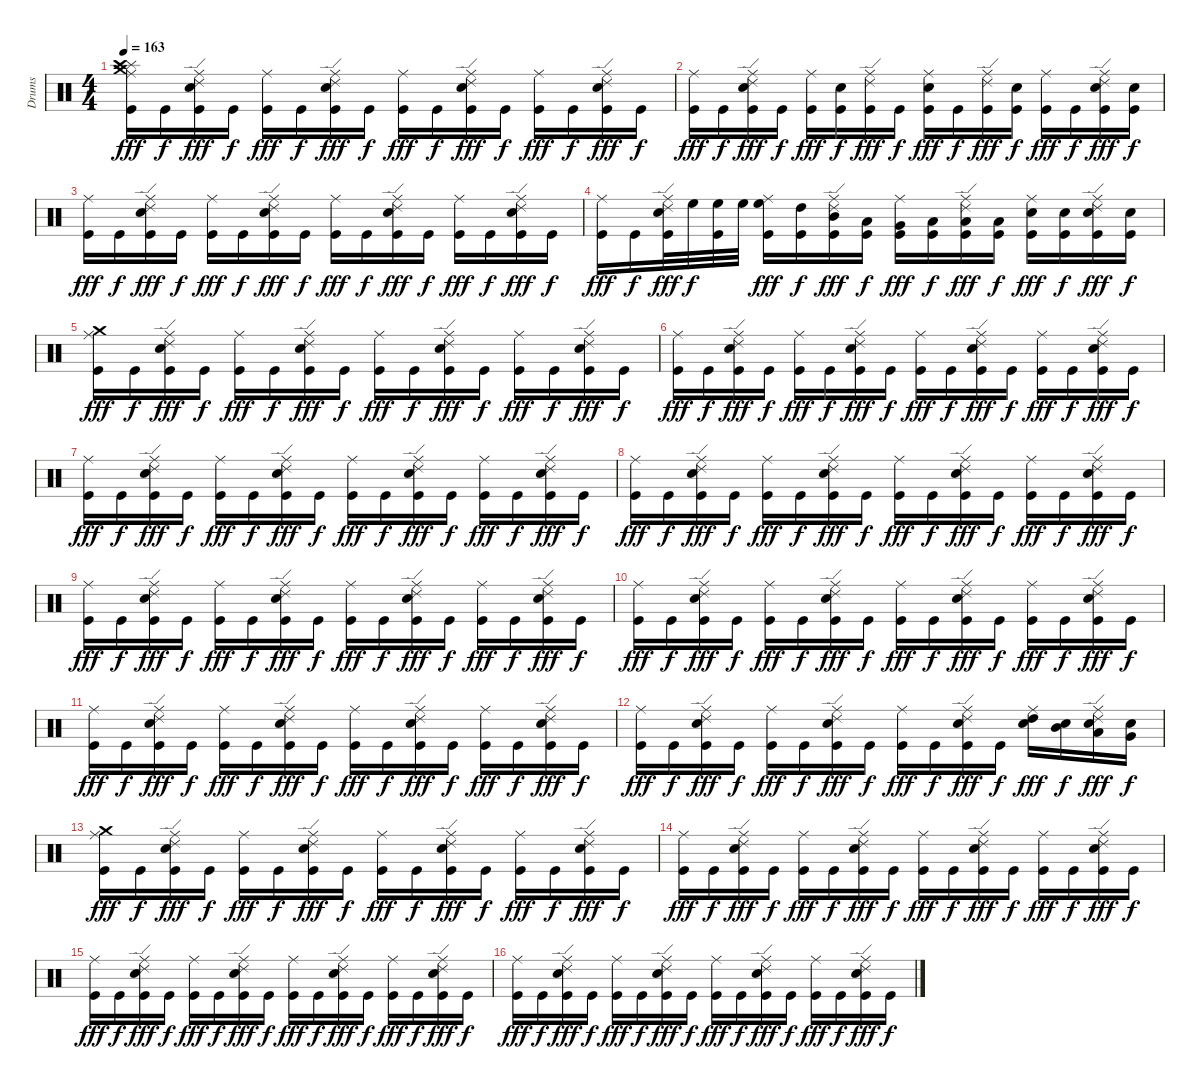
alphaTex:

\track ("Drums" "Drums") {instrument percussion}
\staff {score}
\articulation defaults
\ts (4 4)
\tempo 163
\clef neutral
\ks c
("Crash medium (hit)" "Splash (hit)" "Crash high (hit)" "Ride (middle)" "Kick (hit)").16{dy fff} "Kick (hit)".16{dy f} ("Kick (hit)" "Ride (middle)" "Electric Snare (hit)" "Ride (edge) 2").16{dy fff} "Kick (hit)".16{dy f} ("Ride (middle)" "Kick (hit)").16{dy fff} "Kick (hit)".16{dy f} ("Ride (edge) 2" "Kick (hit)" "Ride (middle)" "Electric Snare (hit)").16{dy fff} "Kick (hit)".16{dy f} ("Ride (middle)" "Kick (hit)").16{dy fff} "Kick (hit)".16{dy f} ("Ride (edge) 2" "Kick (hit)" "Ride (middle)" "Electric Snare (hit)").16{dy fff} "Kick (hit)".16{dy f} ("Kick (hit)" "Ride (middle)").16{dy fff} "Kick (hit)".16{dy f} ("Ride (edge) 2" "Kick (hit)" "Ride (middle)" "Electric Snare (hit)").16{dy fff} "Kick (hit)".16{dy f} |
("Kick (hit)" "Ride (middle)").16{dy fff} "Kick (hit)".16{dy f} ("Ride (edge) 2" "Kick (hit)" "Ride (middle)" "Electric Snare (hit)").16{dy fff} "Kick (hit)".16{dy f} ("Ride (middle)" "Kick (hit)").16{dy fff} ("Kick (hit)" "Electric Snare (hit)").16{dy f} ("Kick (hit)" "Ride (middle)" "Ride (edge) 2").16{dy fff} "Kick (hit)".16{dy f} ("Ride (middle)" "Kick (hit)" "Electric Snare (hit)").16{dy fff} "Kick (hit)".16{dy f} ("Ride (edge) 2" "Ride (middle)" "Kick (hit)").16{dy fff} ("Kick (hit)" "Electric Snare (hit)").16{dy f} ("Ride (middle)" "Kick (hit)").16{dy fff} "Kick (hit)".16{dy f} ("Electric Snare (hit)" "Ride (middle)" "Kick (hit)" "Ride (edge) 2").16{dy fff} ("Kick (hit)" "Electric Snare (hit)").16{dy f} |
("Ride (middle)" "Kick (hit)").16{dy fff} "Kick (hit)".16{dy f} ("Kick (hit)" "Ride (middle)" "Electric Snare (hit)" "Ride (edge) 2").16{dy fff} "Kick (hit)".16{dy f} ("Ride (middle)" "Kick (hit)").16{dy fff} "Kick (hit)".16{dy f} ("Ride (edge) 2" "Kick (hit)" "Ride (middle)" "Electric Snare (hit)").16{dy fff} "Kick (hit)".16{dy f} ("Ride (middle)" "Kick (hit)").16{dy fff} "Kick (hit)".16{dy f} ("Ride (edge) 2" "Kick (hit)" "Ride (middle)" "Electric Snare (hit)").16{dy fff} "Kick (hit)".16{dy f} ("Kick (hit)" "Ride (middle)").16{dy fff} "Kick (hit)".16{dy f} ("Ride (edge) 2" "Kick (hit)" "Ride (middle)" "Electric Snare (hit)").16{dy fff} "Kick (hit)".16{dy f} |
("Kick (hit)" "Ride (middle)").16{dy fff} "Kick (hit)".16{dy f} ("Electric Snare (hit)" "Ride (edge) 2" "Kick (hit)" "Ride (middle)").32{dy fff} "High Floor Tom (hit)".32{dy f} ("Kick (hit)" "High Floor Tom (hit)").32 "High Floor Tom (hit)".32 ("High Floor Tom (hit)" "Kick (hit)" "Ride (middle)").16{dy fff} ("Kick (hit)" "High Tom (hit)").16{dy f} ("Mid Tom (hit)" "Ride (middle)" "Kick (hit)" "Ride (edge) 2").16{dy fff} ("Low Tom (hit)" "Kick (hit)").16{dy f} ("Ride (middle)" "Kick (hit)" "Very Low Tom (hit)").16{dy fff} ("Kick (hit)" "Low Floor Tom (hit)").16{dy f} ("Ride (edge) 2" "Ride (middle)" "Low Floor Tom (hit)" "Kick (hit)").16{dy fff} ("Kick (hit)" "Low Floor Tom (hit)").16{dy f} ("Ride (middle)" "Electric Snare (hit)" "Kick (hit)").16{dy fff} ("Kick (hit)" "Electric Snare (hit)").16{dy f} ("Ride (middle)" "Electric Snare (hit)" "Ride (edge) 2" "Kick (hit)").16{dy fff} ("Kick (hit)" "Electric Snare (hit)").16{dy f} |
("Ride (middle)" "Crash medium (hit)" "Kick (hit)").16{dy fff} "Kick (hit)".16{dy f} ("Ride (middle)" "Kick (hit)" "Ride (edge) 2" "Electric Snare (hit)").16{dy fff} "Kick (hit)".16{dy f} ("Kick (hit)" "Ride (middle)").16{dy fff} "Kick (hit)".16{dy f} ("Ride (edge) 2" "Electric Snare (hit)" "Kick (hit)" "Ride (middle)").16{dy fff} "Kick (hit)".16{dy f} ("Ride (middle)" "Kick (hit)").16{dy fff} "Kick (hit)".16{dy f} ("Kick (hit)" "Ride (middle)" "Electric Snare (hit)" "Ride (edge) 2").16{dy fff} "Kick (hit)".16{dy f} ("Ride (middle)" "Kick (hit)").16{dy fff} "Kick (hit)".16{dy f} ("Electric Snare (hit)" "Kick (hit)" "Ride (middle)" "Ride (edge) 2").16{dy fff} "Kick (hit)".16{dy f} |
("Kick (hit)" "Ride (middle)").16{dy fff} "Kick (hit)".16{dy f} ("Ride (middle)" "Kick (hit)" "Ride (edge) 2" "Electric Snare (hit)").16{dy fff} "Kick (hit)".16{dy f} ("Kick (hit)" "Ride (middle)").16{dy fff} "Kick (hit)".16{dy f} ("Ride (edge) 2" "Electric Snare (hit)" "Kick (hit)" "Ride (middle)").16{dy fff} "Kick (hit)".16{dy f} ("Ride (middle)" "Kick (hit)").16{dy fff} "Kick (hit)".16{dy f} ("Ride (middle)" "Ride (edge) 2" "Electric Snare (hit)" "Kick (hit)").16{dy fff} "Kick (hit)".16{dy f} ("Kick (hit)" "Ride (middle)").16{dy fff} "Kick (hit)".16{dy f} ("Kick (hit)" "Ride (edge) 2" "Electric Snare (hit)" "Ride (middle)").16{dy fff} "Kick (hit)".16{dy f} |
("Ride (middle)" "Kick (hit)").16{dy fff} "Kick (hit)".16{dy f} ("Electric Snare (hit)" "Kick (hit)" "Ride (edge) 2" "Ride (middle)").16{dy fff} "Kick (hit)".16{dy f} ("Ride (middle)" "Kick (hit)").16{dy fff} "Kick (hit)".16{dy f} ("Ride (middle)" "Ride (edge) 2" "Kick (hit)" "Electric Snare (hit)").16{dy fff} "Kick (hit)".16{dy f} ("Kick (hit)" "Ride (middle)").16{dy fff} "Kick (hit)".16{dy f} ("Electric Snare (hit)" "Kick (hit)" "Ride (middle)" "Ride (edge) 2").16{dy fff} "Kick (hit)".16{dy f} ("Ride (middle)" "Kick (hit)").16{dy fff} "Kick (hit)".16{dy f} ("Kick (hit)" "Ride (edge) 2" "Electric Snare (hit)" "Ride (middle)").16{dy fff} "Kick (hit)".16{dy f} |
("Kick (hit)" "Ride (middle)").16{dy fff} "Kick (hit)".16{dy f} ("Kick (hit)" "Electric Snare (hit)" "Ride (middle)" "Ride (edge) 2").16{dy fff} "Kick (hit)".16{dy f} ("Kick (hit)" "Ride (middle)").16{dy fff} "Kick (hit)".16{dy f} ("Kick (hit)" "Ride (edge) 2" "Electric Snare (hit)" "Ride (middle)").16{dy fff} "Kick (hit)".16{dy f} ("Kick (hit)" "Ride (middle)").16{dy fff} "Kick (hit)".16{dy f} ("Ride (edge) 2" "Electric Snare (hit)" "Kick (hit)" "Ride (middle)").16{dy fff} "Kick (hit)".16{dy f} ("Kick (hit)" "Ride (middle)").16{dy fff} "Kick (hit)".16{dy f} ("Ride (middle)" "Ride (edge) 2" "Electric Snare (hit)" "Kick (hit)").16{dy fff} "Kick (hit)".16{dy f} |
("Ride (middle)" "Kick (hit)").16{dy fff} "Kick (hit)".16{dy f} ("Electric Snare (hit)" "Kick (hit)" "Ride (middle)" "Ride (edge) 2").16{dy fff} "Kick (hit)".16{dy f} ("Kick (hit)" "Ride (middle)").16{dy fff} "Kick (hit)".16{dy f} ("Electric Snare (hit)" "Kick (hit)" "Ride (middle)" "Ride (edge) 2").16{dy fff} "Kick (hit)".16{dy f} ("Ride (middle)" "Kick (hit)").16{dy fff} "Kick (hit)".16{dy f} ("Ride (middle)" "Ride (edge) 2" "Kick (hit)" "Electric Snare (hit)").16{dy fff} "Kick (hit)".16{dy f} ("Ride (middle)" "Kick (hit)").16{dy fff} "Kick (hit)".16{dy f} ("Electric Snare (hit)" "Kick (hit)" "Ride (middle)" "Ride (edge) 2").16{dy fff} "Kick (hit)".16{dy f} |
("Kick (hit)" "Ride (middle)").16{dy fff} "Kick (hit)".16{dy f} ("Ride (middle)" "Kick (hit)" "Ride (edge) 2" "Electric Snare (hit)").16{dy fff} "Kick (hit)".16{dy f} ("Kick (hit)" "Ride (middle)").16{dy fff} "Kick (hit)".16{dy f} ("Ride (edge) 2" "Electric Snare (hit)" "Kick (hit)" "Ride (middle)").16{dy fff} "Kick (hit)".16{dy f} ("Ride (middle)" "Kick (hit)").16{dy fff} "Kick (hit)".16{dy f} ("Ride (middle)" "Ride (edge) 2" "Electric Snare (hit)" "Kick (hit)").16{dy fff} "Kick (hit)".16{dy f} ("Ride (middle)" "Kick (hit)").16{dy fff} "Kick (hit)".16{dy f} ("Kick (hit)" "Electric Snare (hit)" "Ride (edge) 2" "Ride (middle)").16{dy fff} "Kick (hit)".16{dy f} |
("Ride (middle)" "Kick (hit)").16{dy fff} "Kick (hit)".16{dy f} ("Electric Snare (hit)" "Kick (hit)" "Ride (middle)" "Ride (edge) 2").16{dy fff} "Kick (hit)".16{dy f} ("Kick (hit)" "Ride (middle)").16{dy fff} "Kick (hit)".16{dy f} ("Electric Snare (hit)" "Kick (hit)" "Ride (middle)" "Ride (edge) 2").16{dy fff} "Kick (hit)".16{dy f} ("Kick (hit)" "Ride (middle)").16{dy fff} "Kick (hit)".16{dy f} ("Kick (hit)" "Ride (edge) 2" "Electric Snare (hit)" "Ride (middle)").16{dy fff} "Kick (hit)".16{dy f} ("Ride (middle)" "Kick (hit)").16{dy fff} "Kick (hit)".16{dy f} ("Ride (edge) 2" "Electric Snare (hit)" "Kick (hit)" "Ride (middle)").16{dy fff} "Kick (hit)".16{dy f} |
("Ride (middle)" "Kick (hit)").16{dy fff} "Kick (hit)".16{dy f} ("Ride (middle)" "Kick (hit)" "Ride (edge) 2" "Electric Snare (hit)").16{dy fff} "Kick (hit)".16{dy f} ("Kick (hit)" "Ride (middle)").16{dy fff} "Kick (hit)".16{dy f} ("Ride (edge) 2" "Electric Snare (hit)" "Kick (hit)" "Ride (middle)").16{dy fff} "Kick (hit)".16{dy f} ("Ride (middle)" "Kick (hit)").16{dy fff} "Kick (hit)".16{dy f} ("Ride (middle)" "Ride (edge) 2" "Electric Snare (hit)" "Kick (hit)").16{dy fff} "Kick (hit)".16{dy f} ("Electric Snare (hit)" "Ride (middle)" "High Tom (hit)").16{dy fff} ("Electric Snare (hit)" "Mid Tom (hit)").16{dy f} ("Electric Snare (hit)" "Low Tom (hit)" "Ride (edge) 2" "Ride (middle)").16{dy fff} ("Very Low Tom (hit)" "Electric Snare (hit)").16{dy f} |
("Ride (middle)" "Kick (hit)" "Crash medium (hit)").16{dy fff} "Kick (hit)".16{dy f} ("Electric Snare (hit)" "Kick (hit)" "Ride (middle)" "Ride (edge) 2").16{dy fff} "Kick (hit)".16{dy f} ("Kick (hit)" "Ride (middle)").16{dy fff} "Kick (hit)".16{dy f} ("Ride (edge) 2" "Ride (middle)" "Kick (hit)" "Electric Snare (hit)").16{dy fff} "Kick (hit)".16{dy f} ("Ride (middle)" "Kick (hit)").16{dy fff} "Kick (hit)".16{dy f} ("Ride (middle)" "Ride (edge) 2" "Kick (hit)" "Electric Snare (hit)").16{dy fff} "Kick (hit)".16{dy f} ("Ride (middle)" "Kick (hit)").16{dy fff} "Kick (hit)".16{dy f} ("Electric Snare (hit)" "Kick (hit)" "Ride (middle)" "Ride (edge) 2").16{dy fff} "Kick (hit)".16{dy f} |
("Kick (hit)" "Ride (middle)").16{dy fff} "Kick (hit)".16{dy f} ("Ride (middle)" "Kick (hit)" "Ride (edge) 2" "Electric Snare (hit)").16{dy fff} "Kick (hit)".16{dy f} ("Kick (hit)" "Ride (middle)").16{dy fff} "Kick (hit)".16{dy f} ("Ride (edge) 2" "Electric Snare (hit)" "Kick (hit)" "Ride (middle)").16{dy fff} "Kick (hit)".16{dy f} ("Ride (middle)" "Kick (hit)").16{dy fff} "Kick (hit)".16{dy f} ("Kick (hit)" "Ride (edge) 2" "Electric Snare (hit)" "Ride (middle)").16{dy fff} "Kick (hit)".16{dy f} ("Ride (middle)" "Kick (hit)").16{dy fff} "Kick (hit)".16{dy f} ("Ride (edge) 2" "Electric Snare (hit)" "Kick (hit)" "Ride (middle)").16{dy fff} "Kick (hit)".16{dy f} |
("Ride (middle)" "Kick (hit)").16{dy fff} "Kick (hit)".16{dy f} ("Electric Snare (hit)" "Kick (hit)" "Ride (edge) 2" "Ride (middle)").16{dy fff} "Kick (hit)".16{dy f} ("Ride (middle)" "Kick (hit)").16{dy fff} "Kick (hit)".16{dy f} ("Ride (middle)" "Ride (edge) 2" "Kick (hit)" "Electric Snare (hit)").16{dy fff} "Kick (hit)".16{dy f} ("Kick (hit)" "Ride (middle)").16{dy fff} "Kick (hit)".16{dy f} ("Electric Snare (hit)" "Kick (hit)" "Ride (middle)" "Ride (edge) 2").16{dy fff} "Kick (hit)".16{dy f} ("Ride (middle)" "Kick (hit)").16{dy fff} "Kick (hit)".16{dy f} ("Electric Snare (hit)" "Ride (middle)" "Kick (hit)" "Ride (edge) 2").16{dy fff} "Kick (hit)".16{dy f} |
("Ride (middle)" "Kick (hit)").16{dy fff} "Kick (hit)".16{dy f} ("Electric Snare (hit)" "Kick (hit)" "Ride (edge) 2" "Ride (middle)").16{dy fff} "Kick (hit)".16{dy f} ("Ride (middle)" "Kick (hit)").16{dy fff} "Kick (hit)".16{dy f} ("Ride (middle)" "Ride (edge) 2" "Kick (hit)" "Electric Snare (hit)").16{dy fff} "Kick (hit)".16{dy f} ("Kick (hit)" "Ride (middle)").16{dy fff} "Kick (hit)".16{dy f} ("Electric Snare (hit)" "Kick (hit)" "Ride (middle)" "Ride (edge) 2").16{dy fff} "Kick (hit)".16{dy f} ("Ride (middle)" "Kick (hit)").16{dy fff} "Kick (hit)".16{dy f} ("Kick (hit)" "Ride (edge) 2" "Electric Snare (hit)" "Ride (middle)").16{dy fff} "Kick (hit)".16{dy f}
